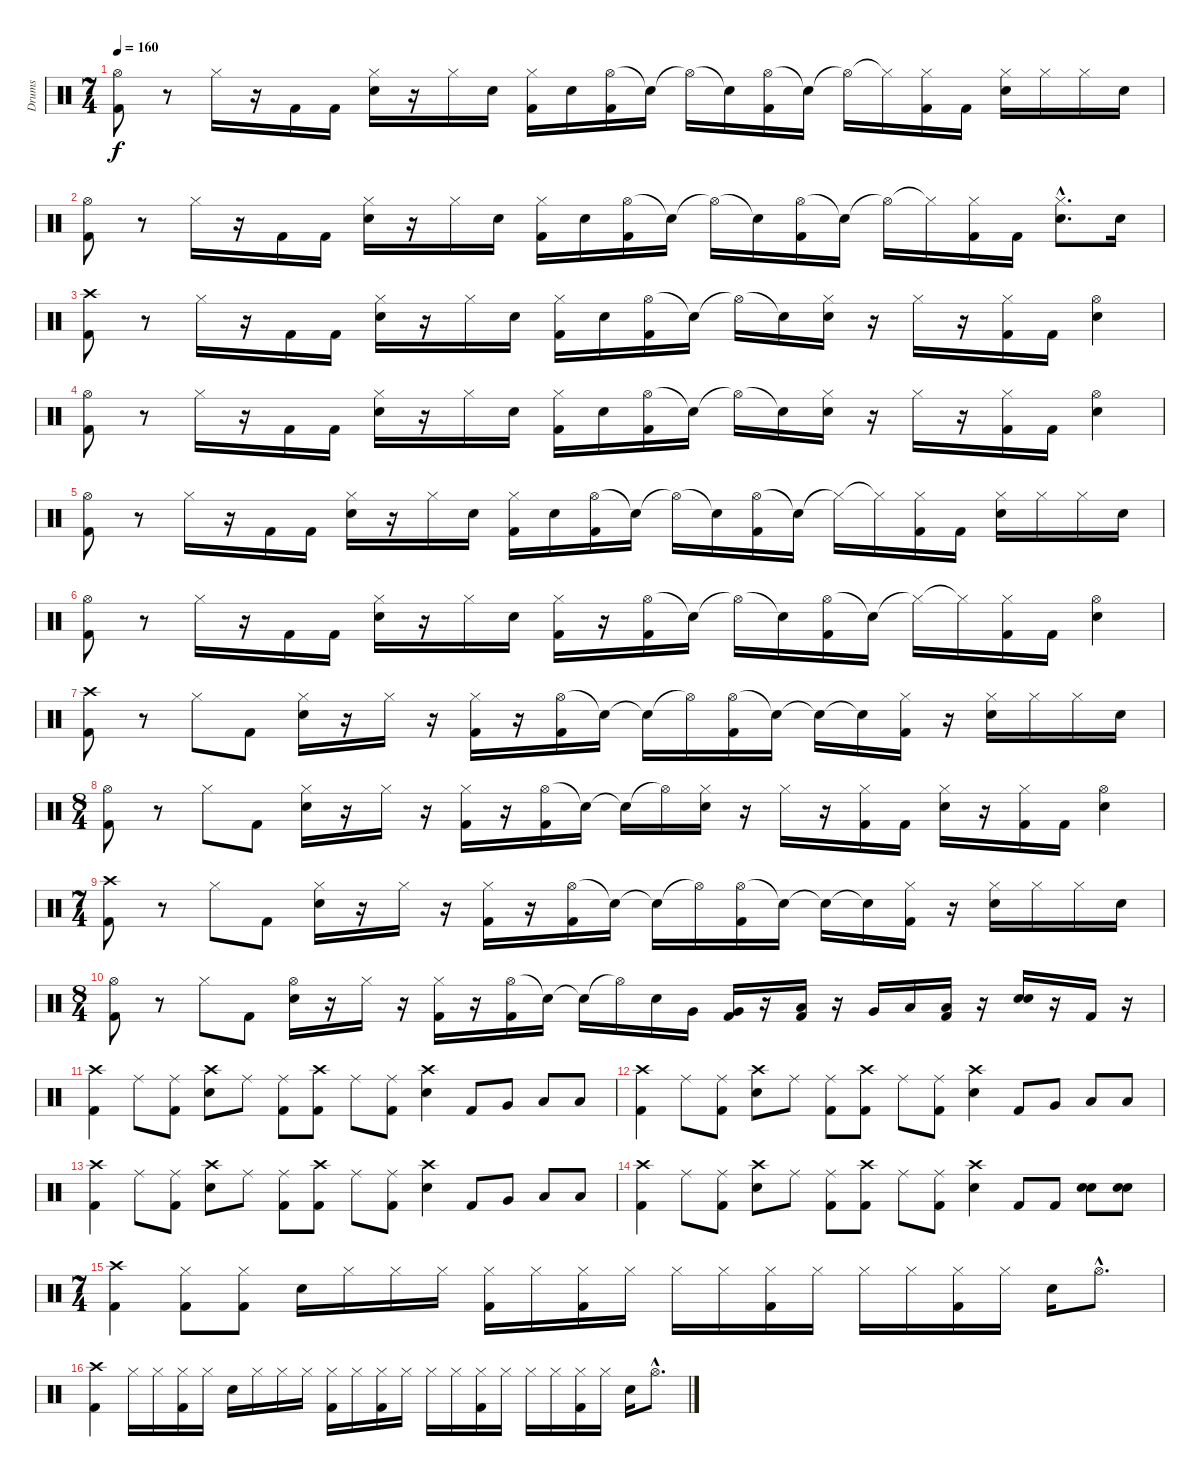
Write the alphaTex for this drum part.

\track ("Drums" "Drums") {instrument percussion}
\staff {score}
\articulation defaults
\ts (7 4)
\tempo 160
\clef neutral
\ks c
("Hi-Hat (open)" "Kick (hit) 2").8{dy f} r.8 "Hi-Hat (closed)".16 r.16 "Kick (hit) 2".16 "Kick (hit) 2".16 ("Hi-Hat (closed)" "Snare (hit) 2").16 r.16 "Hi-Hat (closed)".16 "Snare (hit) 2".16 ("Hi-Hat (closed)" "Kick (hit) 2").16 "Snare (hit) 2".16 ("Hi-Hat (open)" "Kick (hit) 2").16 "Snare (hit)"{t}.16 "Hi-Hat (open)"{t}.16 "Snare (hit)"{t}.16 ("Hi-Hat (open)" "Kick (hit) 2").16 "Snare (hit)"{t}.16 "Hi-Hat (open)"{t}.16 "Hi-Hat (closed)"{t}.16 ("Hi-Hat (closed)" "Kick (hit) 2").16 "Kick (hit) 2".16 ("Hi-Hat (closed)" "Snare (hit) 2").16 "Hi-Hat (closed)".16 "Hi-Hat (closed)".16 "Snare (hit) 2".16 |
("Hi-Hat (open)" "Kick (hit) 2").8 r.8 "Hi-Hat (closed)".16 r.16 "Kick (hit) 2".16 "Kick (hit) 2".16 ("Hi-Hat (closed)" "Snare (hit) 2").16 r.16 "Hi-Hat (closed)".16 "Snare (hit) 2".16 ("Hi-Hat (closed)" "Kick (hit) 2").16 "Snare (hit) 2".16 ("Hi-Hat (open)" "Kick (hit) 2").16 "Snare (hit)"{t}.16 "Hi-Hat (open)"{t}.16 "Snare (hit)"{t}.16 ("Hi-Hat (open)" "Kick (hit) 2").16 "Snare (hit)"{t}.16 "Hi-Hat (open)"{t}.16 "Hi-Hat (closed)"{t}.16 ("Hi-Hat (closed)" "Kick (hit) 2").16 "Kick (hit) 2".16 ("Hi-Hat (closed)"{hac} "Snare (hit) 2"{hac}).8{d} "Snare (hit) 2".16 |
("Crash high (hit)" "Kick (hit) 2").8 r.8 "Hi-Hat (closed)".16 r.16 "Kick (hit) 2".16 "Kick (hit) 2".16 ("Hi-Hat (closed)" "Snare (hit) 2").16 r.16 "Hi-Hat (closed)".16 "Snare (hit) 2".16 ("Hi-Hat (closed)" "Kick (hit) 2").16 "Snare (hit) 2".16 ("Hi-Hat (open)" "Kick (hit) 2").16 "Snare (hit)"{t}.16 "Hi-Hat (open)"{t}.16 "Snare (hit)"{t}.16 ("Hi-Hat (closed)" "Snare (hit) 2").16 r.16 "Hi-Hat (closed)".16 r.16 ("Hi-Hat (closed)" "Kick (hit) 2").16 "Kick (hit) 2".16 ("Hi-Hat (open)" "Snare (hit) 2").4 |
("Hi-Hat (open)" "Kick (hit) 2").8 r.8 "Hi-Hat (closed)".16 r.16 "Kick (hit) 2".16 "Kick (hit) 2".16 ("Hi-Hat (closed)" "Snare (hit) 2").16 r.16 "Hi-Hat (closed)".16 "Snare (hit) 2".16 ("Hi-Hat (closed)" "Kick (hit) 2").16 "Snare (hit) 2".16 ("Hi-Hat (open)" "Kick (hit) 2").16 "Snare (hit)"{t}.16 "Hi-Hat (open)"{t}.16 "Snare (hit)"{t}.16 ("Hi-Hat (closed)" "Snare (hit) 2").16 r.16 "Hi-Hat (closed)".16 r.16 ("Hi-Hat (closed)" "Kick (hit) 2").16 "Kick (hit) 2".16 ("Hi-Hat (open)" "Snare (hit) 2").4 |
("Hi-Hat (open)" "Kick (hit) 2").8 r.8 "Hi-Hat (closed)".16 r.16 "Kick (hit) 2".16 "Kick (hit) 2".16 ("Hi-Hat (closed)" "Snare (hit) 2").16 r.16 "Hi-Hat (closed)".16 "Snare (hit) 2".16 ("Hi-Hat (closed)" "Kick (hit) 2").16 "Snare (hit) 2".16 ("Hi-Hat (open)" "Kick (hit) 2").16 "Snare (hit)"{t}.16 "Hi-Hat (open)"{t}.16 "Snare (hit)"{t}.16 ("Hi-Hat (open)" "Kick (hit) 2").16 "Snare (hit)"{t}.16 "Hi-Hat (closed)"{t}.16 "Hi-Hat (closed)"{t}.16 ("Hi-Hat (closed)" "Kick (hit) 2").16 "Kick (hit) 2".16 ("Hi-Hat (closed)" "Snare (hit) 2").16 "Hi-Hat (closed)".16 "Hi-Hat (closed)".16 "Snare (hit) 2".16 |
("Hi-Hat (open)" "Kick (hit) 2").8 r.8 "Hi-Hat (closed)".16 r.16 "Kick (hit) 2".16 "Kick (hit) 2".16 ("Hi-Hat (closed)" "Snare (hit) 2").16 r.16 "Hi-Hat (closed)".16 "Snare (hit) 2".16 ("Hi-Hat (closed)" "Kick (hit) 2").16 r.16 ("Hi-Hat (open)" "Kick (hit) 2").16 "Snare (hit)"{t}.16 "Hi-Hat (open)"{t}.16 "Snare (hit)"{t}.16 ("Hi-Hat (open)" "Kick (hit) 2").16 "Snare (hit)"{t}.16 "Hi-Hat (closed)"{t}.16 "Hi-Hat (closed)"{t}.16 ("Hi-Hat (closed)" "Kick (hit) 2").16 "Kick (hit) 2".16 ("Hi-Hat (open)" "Snare (hit) 2").4 |
("Crash high (hit)" "Kick (hit) 2").8 r.8 "Hi-Hat (closed)".8 "Kick (hit) 2".8 ("Hi-Hat (closed)" "Snare (hit) 2").16 r.16 "Hi-Hat (closed)".16 r.16 ("Hi-Hat (closed)" "Kick (hit) 2").16 r.16 ("Hi-Hat (open)" "Kick (hit) 2").16 "Snare (hit)"{t}.16 "Snare (hit)"{t}.16 "Hi-Hat (open)"{t}.16 ("Hi-Hat (open)" "Kick (hit) 2").16 "Snare (hit)"{t}.16 "Snare (hit)"{t}.16 "Snare (hit)"{t}.16 ("Hi-Hat (closed)" "Kick (hit) 2").16 r.16 ("Hi-Hat (closed)" "Snare (hit) 2").16 "Hi-Hat (closed)".16 "Hi-Hat (closed)".16 "Snare (hit) 2".16 |
\ts (8 4)
("Hi-Hat (open)" "Kick (hit) 2").8 r.8 "Hi-Hat (closed)".8 "Kick (hit) 2".8 ("Hi-Hat (closed)" "Snare (hit) 2").16 r.16 "Hi-Hat (closed)".16 r.16 ("Hi-Hat (closed)" "Kick (hit) 2").16 r.16 ("Hi-Hat (open)" "Kick (hit) 2").16 "Snare (hit)"{t}.16 "Snare (hit)"{t}.16 "Hi-Hat (open)"{t}.16 ("Hi-Hat (closed)" "Snare (hit) 2").16 r.16 "Hi-Hat (closed)".16 r.16 ("Hi-Hat (closed)" "Kick (hit) 2").16 "Kick (hit) 2".16 ("Hi-Hat (closed)" "Snare (hit) 2").16 r.16 ("Hi-Hat (closed)" "Kick (hit) 2").16 "Kick (hit) 2".16 ("Hi-Hat (open)" "Snare (hit) 2").4 |
\ts (7 4)
("Crash high (hit)" "Kick (hit) 2").8 r.8 "Hi-Hat (closed)".8 "Kick (hit) 2".8 ("Hi-Hat (closed)" "Snare (hit) 2").16 r.16 "Hi-Hat (closed)".16 r.16 ("Hi-Hat (closed)" "Kick (hit) 2").16 r.16 ("Hi-Hat (open)" "Kick (hit) 2").16 "Snare (hit)"{t}.16 "Snare (hit)"{t}.16 "Hi-Hat (open)"{t}.16 ("Hi-Hat (open)" "Kick (hit) 2").16 "Snare (hit)"{t}.16 "Snare (hit)"{t}.16 "Snare (hit)"{t}.16 ("Hi-Hat (closed)" "Kick (hit) 2").16 r.16 ("Hi-Hat (closed)" "Snare (hit) 2").16 "Hi-Hat (closed)".16 "Hi-Hat (closed)".16 "Snare (hit) 2".16 |
\ts (8 4)
("Hi-Hat (open)" "Kick (hit) 2").8 r.8 "Hi-Hat (closed)".8 "Kick (hit) 2".8 ("Hi-Hat (open)" "Snare (hit) 2").16 r.16 "Hi-Hat (closed)".16 r.16 ("Hi-Hat (closed)" "Kick (hit) 2").16 r.16 ("Hi-Hat (open)" "Kick (hit) 2").16 "Snare (hit)"{t}.16 "Snare (hit)"{t}.16 "Hi-Hat (open)"{t}.16 "Snare (hit) 2".16 "Very Low Tom (hit)".16 ("Very Low Tom (hit)" "Kick (hit) 2").16 r.16 ("Low Floor Tom (hit)" "Kick (hit) 2").16 r.16 "Very Low Tom (hit)".16 "Low Floor Tom (hit)".16 ("Low Floor Tom (hit)" "Kick (hit) 2").16 r.16 ("Snare (hit) 2" "Snare (hit) 2").16 r.16 "Kick (hit) 2".16 r.16 |
("Crash high (hit)" "Kick (hit) 2").4 "Ride (middle)".8 ("Ride (middle)" "Kick (hit) 2").8 ("Crash high (hit)" "Snare (hit) 2").8 "Ride (middle)".8 ("Ride (middle)" "Kick (hit) 2").8 ("Crash high (hit)" "Kick (hit) 2").8 "Ride (middle)".8 ("Ride (middle)" "Kick (hit) 2").8 ("Crash high (hit)" "Snare (hit) 2").4 "Kick (hit) 2".8 "Very Low Tom (hit)".8 "Low Floor Tom (hit)".8 "Low Floor Tom (hit)".8 |
("Crash high (hit)" "Kick (hit) 2").4 "Ride (middle)".8 ("Ride (middle)" "Kick (hit) 2").8 ("Crash high (hit)" "Snare (hit) 2").8 "Ride (middle)".8 ("Ride (middle)" "Kick (hit) 2").8 ("Crash high (hit)" "Kick (hit) 2").8 "Ride (middle)".8 ("Ride (middle)" "Kick (hit) 2").8 ("Crash high (hit)" "Snare (hit) 2").4 "Kick (hit) 2".8 "Very Low Tom (hit)".8 "Low Floor Tom (hit)".8 "Low Floor Tom (hit)".8 |
("Crash high (hit)" "Kick (hit) 2").4 "Ride (middle)".8 ("Ride (middle)" "Kick (hit) 2").8 ("Crash high (hit)" "Snare (hit) 2").8 "Ride (middle)".8 ("Ride (middle)" "Kick (hit) 2").8 ("Crash high (hit)" "Kick (hit) 2").8 "Ride (middle)".8 ("Ride (middle)" "Kick (hit) 2").8 ("Crash high (hit)" "Snare (hit) 2").4 "Kick (hit) 2".8 "Very Low Tom (hit)".8 "Low Floor Tom (hit)".8 "Low Floor Tom (hit)".8 |
("Crash high (hit)" "Kick (hit) 2").4 "Ride (middle)".8 ("Ride (middle)" "Kick (hit) 2").8 ("Crash high (hit)" "Snare (hit) 2").8 "Ride (middle)".8 ("Ride (middle)" "Kick (hit) 2").8 ("Crash high (hit)" "Kick (hit) 2").8 "Ride (middle)".8 ("Ride (middle)" "Kick (hit) 2").8 ("Crash high (hit)" "Snare (hit) 2").4 "Kick (hit) 2".8 "Kick (hit) 2".8 ("Snare (hit) 2" "Snare (hit) 2").8 ("Snare (hit) 2" "Snare (hit) 2").8 |
\ts (7 4)
("Crash high (hit)" "Kick (hit) 2").4 ("Hi-Hat (closed)" "Kick (hit) 2").8 ("Hi-Hat (closed)" "Kick (hit) 2").8 "Snare (hit) 2".16 "Hi-Hat (closed)".16 "Hi-Hat (closed)".16 "Hi-Hat (closed)".16 ("Hi-Hat (closed)" "Kick (hit) 2").16 "Hi-Hat (closed)".16 ("Hi-Hat (closed)" "Kick (hit) 2").16 "Hi-Hat (closed)".16 "Hi-Hat (closed)".16 "Hi-Hat (closed)".16 ("Hi-Hat (closed)" "Kick (hit) 2").16 "Hi-Hat (closed)".16 "Hi-Hat (closed)".16 "Hi-Hat (closed)".16 ("Hi-Hat (closed)" "Kick (hit) 2").16 "Hi-Hat (closed)".16 "Snare (hit) 2".16 "Hi-Hat (open)"{hac}.8{d} |
("Crash high (hit)" "Kick (hit) 2").4 "Hi-Hat (closed)".16 "Hi-Hat (closed)".16 ("Hi-Hat (closed)" "Kick (hit) 2").16 "Hi-Hat (closed)".16 "Snare (hit) 2".16 "Hi-Hat (closed)".16 "Hi-Hat (closed)".16 "Hi-Hat (closed)".16 ("Hi-Hat (closed)" "Kick (hit) 2").16 "Hi-Hat (closed)".16 ("Hi-Hat (closed)" "Kick (hit) 2").16 "Hi-Hat (closed)".16 "Hi-Hat (closed)".16 "Hi-Hat (closed)".16 ("Hi-Hat (closed)" "Kick (hit) 2").16 "Hi-Hat (closed)".16 "Hi-Hat (closed)".16 "Hi-Hat (closed)".16 ("Hi-Hat (closed)" "Kick (hit) 2").16 "Hi-Hat (closed)".16 "Snare (hit) 2".16 "Hi-Hat (open)"{hac}.8{d}
